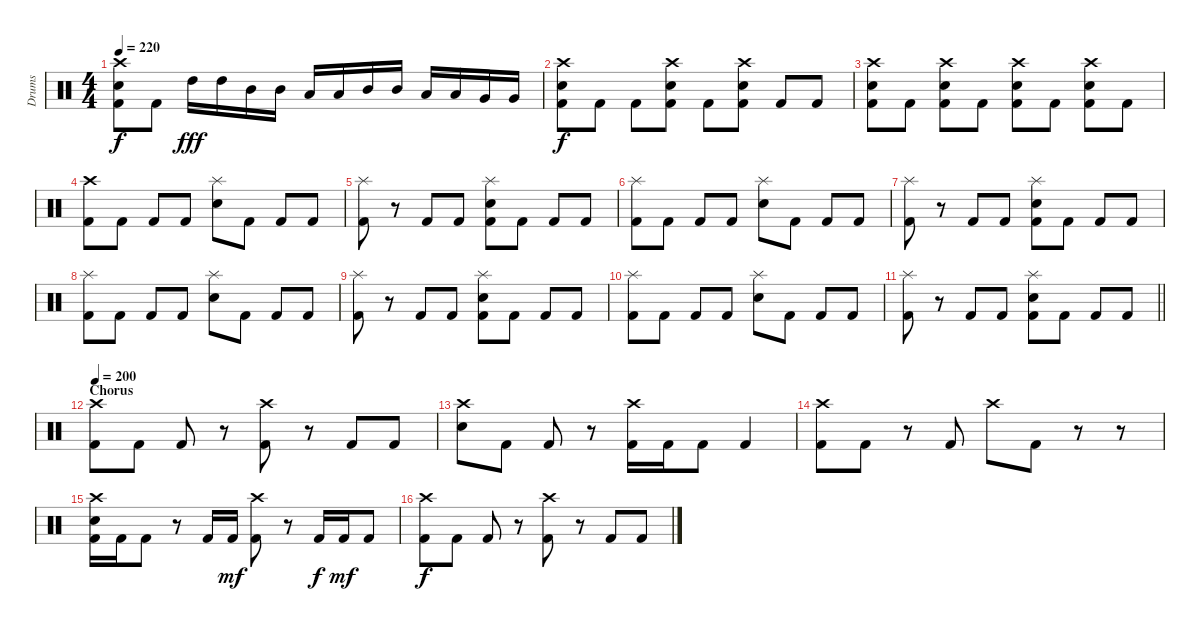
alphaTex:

\track ("Drums" "Drums") {instrument percussion}
\staff {score}
\articulation defaults
\ts (4 4)
\tempo 220
\clef neutral
\ks c
("Crash high (hit)" "Electric Snare (hit)" "Kick (hit) 2").8{dy f} "Kick (hit) 2".8 "High Tom (hit)".16{dy fff} "High Tom (hit)".16 "Mid Tom (hit)".16 "Mid Tom (hit)".16 "Low Tom (hit)".16 "Low Tom (hit)".16 "Mid Tom (hit)".16 "Mid Tom (hit)".16 "Low Tom (hit)".16 "Low Tom (hit)".16 "Very Low Tom (hit)".16 "Very Low Tom (hit)".16 |
("Crash high (hit)" "Electric Snare (hit)" "Kick (hit) 2").8{dy f} "Kick (hit) 2".8 "Kick (hit) 2".8 ("Crash high (hit)" "Electric Snare (hit)" "Kick (hit) 2").8 "Kick (hit) 2".8 ("Crash high (hit)" "Electric Snare (hit)" "Kick (hit) 2").8 "Kick (hit) 2".8 "Kick (hit) 2".8 |
("Crash high (hit)" "Electric Snare (hit)" "Kick (hit) 2").8 "Kick (hit) 2".8 ("Crash high (hit)" "Electric Snare (hit)" "Kick (hit) 2").8 "Kick (hit) 2".8 ("Crash high (hit)" "Electric Snare (hit)" "Kick (hit) 2").8 "Kick (hit) 2".8 ("Crash high (hit)" "Electric Snare (hit)" "Kick (hit) 2").8 "Kick (hit) 2".8 |
("Crash high (hit)" "Kick (hit) 2").8 "Kick (hit) 2".8 "Kick (hit) 2".8 "Kick (hit) 2".8 ("Splash (hit)" "Electric Snare (hit)").8 "Kick (hit) 2".8 "Kick (hit) 2".8 "Kick (hit) 2".8 |
("Splash (hit)" "Kick (hit) 2").8 r.8 "Kick (hit) 2".8 "Kick (hit) 2".8 ("Splash (hit)" "Electric Snare (hit)" "Kick (hit) 2").8 "Kick (hit) 2".8 "Kick (hit) 2".8 "Kick (hit) 2".8 |
("Splash (hit)" "Kick (hit) 2").8 "Kick (hit) 2".8 "Kick (hit) 2".8 "Kick (hit) 2".8 ("Splash (hit)" "Electric Snare (hit)").8 "Kick (hit) 2".8 "Kick (hit) 2".8 "Kick (hit) 2".8 |
("Splash (hit)" "Kick (hit) 2").8 r.8 "Kick (hit) 2".8 "Kick (hit) 2".8 ("Splash (hit)" "Electric Snare (hit)" "Kick (hit) 2").8 "Kick (hit) 2".8 "Kick (hit) 2".8 "Kick (hit) 2".8 |
("Splash (hit)" "Kick (hit) 2").8 "Kick (hit) 2".8 "Kick (hit) 2".8 "Kick (hit) 2".8 ("Splash (hit)" "Electric Snare (hit)").8 "Kick (hit) 2".8 "Kick (hit) 2".8 "Kick (hit) 2".8 |
("Splash (hit)" "Kick (hit) 2").8 r.8 "Kick (hit) 2".8 "Kick (hit) 2".8 ("Splash (hit)" "Electric Snare (hit)" "Kick (hit) 2").8 "Kick (hit) 2".8 "Kick (hit) 2".8 "Kick (hit) 2".8 |
("Splash (hit)" "Kick (hit) 2").8 "Kick (hit) 2".8 "Kick (hit) 2".8 "Kick (hit) 2".8 ("Splash (hit)" "Electric Snare (hit)").8 "Kick (hit) 2".8 "Kick (hit) 2".8 "Kick (hit) 2".8 |
\barLineRight lightlight
("Splash (hit)" "Kick (hit) 2").8 r.8 "Kick (hit) 2".8 "Kick (hit) 2".8 ("Splash (hit)" "Electric Snare (hit)" "Kick (hit) 2").8 "Kick (hit) 2".8 "Kick (hit) 2".8 "Kick (hit) 2".8 |
\section ("" "Chorus")
\tempo 200
("Crash high (hit)" "Kick (hit) 2").8 "Kick (hit) 2".8 "Kick (hit) 2".8 r.8 ("Crash high (hit)" "Kick (hit) 2").8 r.8 "Kick (hit) 2".8 "Kick (hit) 2".8 |
("Crash high (hit)" "Electric Snare (hit)").8 "Kick (hit) 2".8 "Kick (hit) 2".8 r.8 ("Crash high (hit)" "Kick (hit) 2").16 "Kick (hit) 2".16 "Kick (hit) 2".8 "Kick (hit) 2".4 |
("Crash high (hit)" "Kick (hit) 2").8 "Kick (hit) 2".8 r.8 "Kick (hit) 2".8 "Crash high (hit)".8 "Kick (hit) 2".8 r.8 r.8 |
("Crash high (hit)" "Electric Snare (hit)" "Kick (hit) 2").16 "Kick (hit) 2".16 "Kick (hit) 2".8 r.8 "Kick (hit) 2".16 "Kick (hit) 2".16{dy mf} ("Crash high (hit)" "Kick (hit) 2").8 r.8 "Kick (hit) 2".16{dy f} "Kick (hit) 2".16{dy mf} "Kick (hit) 2".8 |
("Crash high (hit)" "Kick (hit) 2").8{dy f} "Kick (hit) 2".8 "Kick (hit) 2".8 r.8 ("Crash high (hit)" "Kick (hit) 2").8 r.8 "Kick (hit) 2".8 "Kick (hit) 2".8
